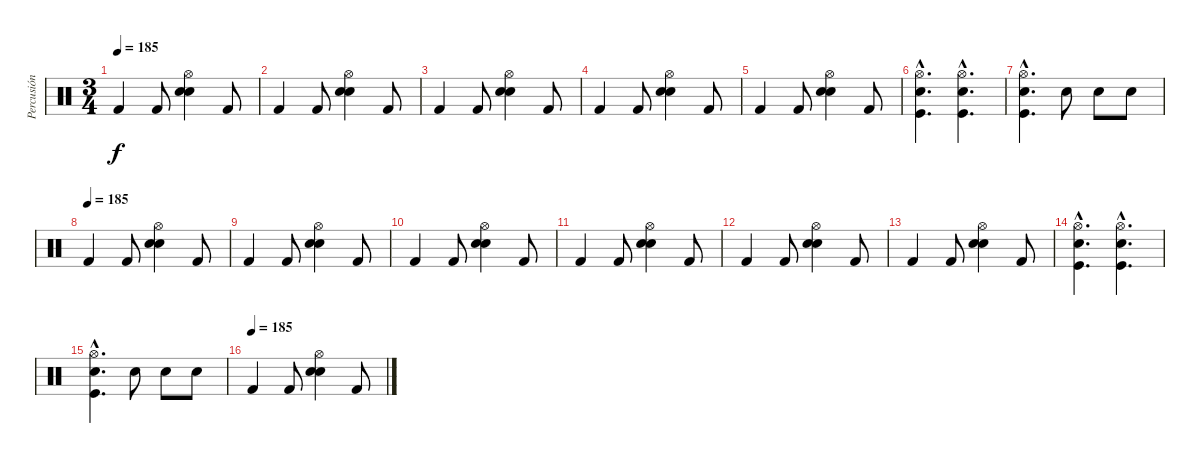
\track ("Percusión" "Percusión") {instrument percussion}
\staff {score}
\articulation defaults
\ts (3 4)
\tempo 185
\clef neutral
\ks c "Kick (hit) 2".4{dy f} "Kick (hit) 2".8
("Hi-Hat (open)" "Electric Snare (hit)" "Snare (hit) 2").4 "Kick (hit) 2".8 |
"Kick (hit) 2".4 "Kick (hit) 2".8 ("Hi-Hat (open)" "Electric Snare (hit)" "Snare (hit) 2").4 "Kick (hit) 2".8 |
"Kick (hit) 2".4 "Kick (hit) 2".8 ("Hi-Hat (open)" "Electric Snare (hit)" "Snare (hit) 2").4 "Kick (hit) 2".8 |
"Kick (hit) 2".4 "Kick (hit) 2".8 ("Hi-Hat (open)" "Electric Snare (hit)" "Snare (hit) 2").4 "Kick (hit) 2".8 |
"Kick (hit) 2".4 "Kick (hit) 2".8 ("Hi-Hat (open)" "Electric Snare (hit)" "Snare (hit) 2").4 "Kick (hit) 2".8 |
("Hi-Hat (open)"{hac} "Electric Snare (hit)"{hac} "Kick (hit)"{hac}).4{d} ("Hi-Hat (open)"{hac} "Electric Snare (hit)"{hac} "Kick (hit)"{hac}).4{d} |
("Hi-Hat (open)"{hac} "Electric Snare (hit)"{hac} "Kick (hit)"{hac}).4{d} "Electric Snare (hit)".8 "Electric Snare (hit)".8 "Electric Snare (hit)".8 |
\tempo (185)
"Kick (hit) 2".4 "Kick (hit) 2".8 ("Hi-Hat (open)" "Electric Snare (hit)" "Snare (hit) 2").4 "Kick (hit) 2".8 |
"Kick (hit) 2".4 "Kick (hit) 2".8 ("Hi-Hat (open)" "Electric Snare (hit)" "Snare (hit) 2").4 "Kick (hit) 2".8 |
"Kick (hit) 2".4 "Kick (hit) 2".8 ("Hi-Hat (open)" "Electric Snare (hit)" "Snare (hit) 2").4 "Kick (hit) 2".8 |
"Kick (hit) 2".4 "Kick (hit) 2".8 ("Hi-Hat (open)" "Electric Snare (hit)" "Snare (hit) 2").4 "Kick (hit) 2".8 |
"Kick (hit) 2".4 "Kick (hit) 2".8 ("Hi-Hat (open)" "Electric Snare (hit)" "Snare (hit) 2").4 "Kick (hit) 2".8 |
"Kick (hit) 2".4 "Kick (hit) 2".8 ("Hi-Hat (open)" "Electric Snare (hit)" "Snare (hit) 2").4 "Kick (hit) 2".8 |
("Hi-Hat (open)"{hac} "Electric Snare (hit)"{hac} "Kick (hit)"{hac}).4{d} ("Hi-Hat (open)"{hac} "Electric Snare (hit)"{hac} "Kick (hit)"{hac}).4{d} |
("Hi-Hat (open)"{hac} "Electric Snare (hit)"{hac} "Kick (hit)"{hac}).4{d} "Electric Snare (hit)".8 "Electric Snare (hit)".8 "Electric Snare (hit)".8 |
\tempo (185)
"Kick (hit) 2".4 "Kick (hit) 2".8 ("Hi-Hat (open)" "Electric Snare (hit)" "Snare (hit) 2").4 "Kick (hit) 2".8
